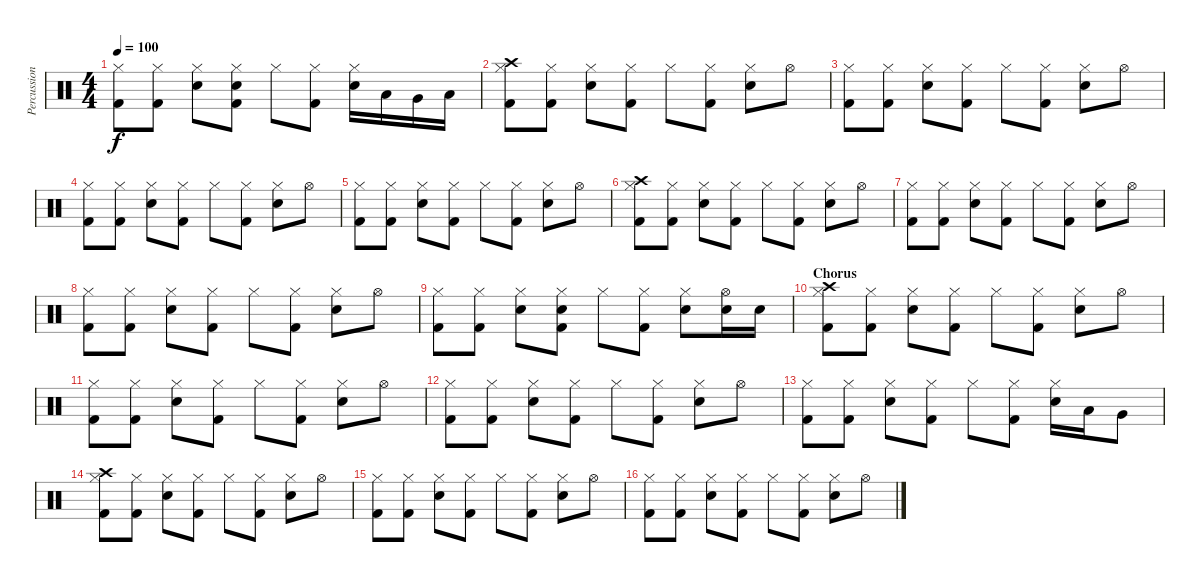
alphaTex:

\track ("Percussion" "Percussion") {instrument percussion}
\staff {score}
\articulation defaults
\ts (4 4)
\tempo 100
\clef neutral
\ks c
("Hi-Hat (closed)" "Kick (hit) 2").8{dy f} ("Hi-Hat (closed)" "Kick (hit) 2").8 ("Hi-Hat (closed)" "Electric Snare (hit)").8 ("Hi-Hat (closed)" "Electric Snare (hit)" "Kick (hit) 2").8 "Hi-Hat (closed)".8 ("Hi-Hat (closed)" "Kick (hit) 2").8 ("Hi-Hat (closed)" "Electric Snare (hit)").16 "Low Tom (hit)".16 "Very Low Tom (hit)".16 "Low Floor Tom (hit)".16 |
("Crash high (hit)" "Hi-Hat (closed)" "Kick (hit) 2").8 ("Hi-Hat (closed)" "Kick (hit) 2").8 ("Hi-Hat (closed)" "Electric Snare (hit)").8 ("Hi-Hat (closed)" "Kick (hit) 2").8 "Hi-Hat (closed)".8 ("Hi-Hat (closed)" "Kick (hit) 2").8 ("Hi-Hat (closed)" "Electric Snare (hit)").8 "Hi-Hat (open)".8 |
("Hi-Hat (closed)" "Kick (hit) 2").8 ("Hi-Hat (closed)" "Kick (hit) 2").8 ("Hi-Hat (closed)" "Electric Snare (hit)").8 ("Hi-Hat (closed)" "Kick (hit) 2").8 "Hi-Hat (closed)".8 ("Hi-Hat (closed)" "Kick (hit) 2").8 ("Hi-Hat (closed)" "Electric Snare (hit)").8 "Hi-Hat (open)".8 |
("Hi-Hat (closed)" "Kick (hit) 2").8 ("Hi-Hat (closed)" "Kick (hit) 2").8 ("Hi-Hat (closed)" "Electric Snare (hit)").8 ("Hi-Hat (closed)" "Kick (hit) 2").8 "Hi-Hat (closed)".8 ("Hi-Hat (closed)" "Kick (hit) 2").8 ("Hi-Hat (closed)" "Electric Snare (hit)").8 "Hi-Hat (open)".8 |
("Hi-Hat (closed)" "Kick (hit) 2").8 ("Hi-Hat (closed)" "Kick (hit) 2").8 ("Hi-Hat (closed)" "Electric Snare (hit)").8 ("Hi-Hat (closed)" "Kick (hit) 2").8 "Hi-Hat (closed)".8 ("Hi-Hat (closed)" "Kick (hit) 2").8 ("Hi-Hat (closed)" "Electric Snare (hit)").8 "Hi-Hat (open)".8 |
("Crash high (hit)" "Hi-Hat (closed)" "Kick (hit) 2").8 ("Hi-Hat (closed)" "Kick (hit) 2").8 ("Hi-Hat (closed)" "Electric Snare (hit)").8 ("Hi-Hat (closed)" "Kick (hit) 2").8 "Hi-Hat (closed)".8 ("Hi-Hat (closed)" "Kick (hit) 2").8 ("Hi-Hat (closed)" "Electric Snare (hit)").8 "Hi-Hat (open)".8 |
("Hi-Hat (closed)" "Kick (hit) 2").8 ("Hi-Hat (closed)" "Kick (hit) 2").8 ("Hi-Hat (closed)" "Electric Snare (hit)").8 ("Hi-Hat (closed)" "Kick (hit) 2").8 "Hi-Hat (closed)".8 ("Hi-Hat (closed)" "Kick (hit) 2").8 ("Hi-Hat (closed)" "Electric Snare (hit)").8 "Hi-Hat (open)".8 |
("Hi-Hat (closed)" "Kick (hit) 2").8 ("Hi-Hat (closed)" "Kick (hit) 2").8 ("Hi-Hat (closed)" "Electric Snare (hit)").8 ("Hi-Hat (closed)" "Kick (hit) 2").8 "Hi-Hat (closed)".8 ("Hi-Hat (closed)" "Kick (hit) 2").8 ("Hi-Hat (closed)" "Electric Snare (hit)").8 "Hi-Hat (open)".8 |
("Hi-Hat (closed)" "Kick (hit) 2").8 ("Hi-Hat (closed)" "Kick (hit) 2").8 ("Hi-Hat (closed)" "Electric Snare (hit)").8 ("Hi-Hat (closed)" "Electric Snare (hit)" "Kick (hit) 2").8 "Hi-Hat (closed)".8 ("Hi-Hat (closed)" "Kick (hit) 2").8 ("Hi-Hat (closed)" "Electric Snare (hit)").8 ("Hi-Hat (open)" "Electric Snare (hit)").16 "Electric Snare (hit)".16 |
\section ("" "Chorus")
("Crash high (hit)" "Hi-Hat (closed)" "Kick (hit) 2").8 ("Hi-Hat (closed)" "Kick (hit) 2").8 ("Hi-Hat (closed)" "Electric Snare (hit)").8 ("Hi-Hat (closed)" "Kick (hit) 2").8 "Hi-Hat (closed)".8 ("Hi-Hat (closed)" "Kick (hit) 2").8 ("Hi-Hat (closed)" "Electric Snare (hit)").8 "Hi-Hat (open)".8 |
("Hi-Hat (closed)" "Kick (hit) 2").8 ("Hi-Hat (closed)" "Kick (hit) 2").8 ("Hi-Hat (closed)" "Electric Snare (hit)").8 ("Hi-Hat (closed)" "Kick (hit) 2").8 "Hi-Hat (closed)".8 ("Hi-Hat (closed)" "Kick (hit) 2").8 ("Hi-Hat (closed)" "Electric Snare (hit)").8 "Hi-Hat (open)".8 |
("Hi-Hat (closed)" "Kick (hit) 2").8 ("Hi-Hat (closed)" "Kick (hit) 2").8 ("Hi-Hat (closed)" "Electric Snare (hit)").8 ("Hi-Hat (closed)" "Kick (hit) 2").8 "Hi-Hat (closed)".8 ("Hi-Hat (closed)" "Kick (hit) 2").8 ("Hi-Hat (closed)" "Electric Snare (hit)").8 "Hi-Hat (open)".8 |
("Hi-Hat (closed)" "Kick (hit) 2").8 ("Hi-Hat (closed)" "Kick (hit) 2").8 ("Hi-Hat (closed)" "Electric Snare (hit)").8 ("Hi-Hat (closed)" "Kick (hit) 2").8 "Hi-Hat (closed)".8 ("Hi-Hat (closed)" "Kick (hit) 2").8 ("Hi-Hat (closed)" "Electric Snare (hit)").16 "Low Tom (hit)".16 "Very Low Tom (hit)".8 |
("Crash high (hit)" "Hi-Hat (closed)" "Kick (hit) 2").8 ("Hi-Hat (closed)" "Kick (hit) 2").8 ("Hi-Hat (closed)" "Electric Snare (hit)").8 ("Hi-Hat (closed)" "Kick (hit) 2").8 "Hi-Hat (closed)".8 ("Hi-Hat (closed)" "Kick (hit) 2").8 ("Hi-Hat (closed)" "Electric Snare (hit)").8 "Hi-Hat (open)".8 |
("Hi-Hat (closed)" "Kick (hit) 2").8 ("Hi-Hat (closed)" "Kick (hit) 2").8 ("Hi-Hat (closed)" "Electric Snare (hit)").8 ("Hi-Hat (closed)" "Kick (hit) 2").8 "Hi-Hat (closed)".8 ("Hi-Hat (closed)" "Kick (hit) 2").8 ("Hi-Hat (closed)" "Electric Snare (hit)").8 "Hi-Hat (open)".8 |
("Hi-Hat (closed)" "Kick (hit) 2").8 ("Hi-Hat (closed)" "Kick (hit) 2").8 ("Hi-Hat (closed)" "Electric Snare (hit)").8 ("Hi-Hat (closed)" "Kick (hit) 2").8 "Hi-Hat (closed)".8 ("Hi-Hat (closed)" "Kick (hit) 2").8 ("Hi-Hat (closed)" "Electric Snare (hit)").8 "Hi-Hat (open)".8
